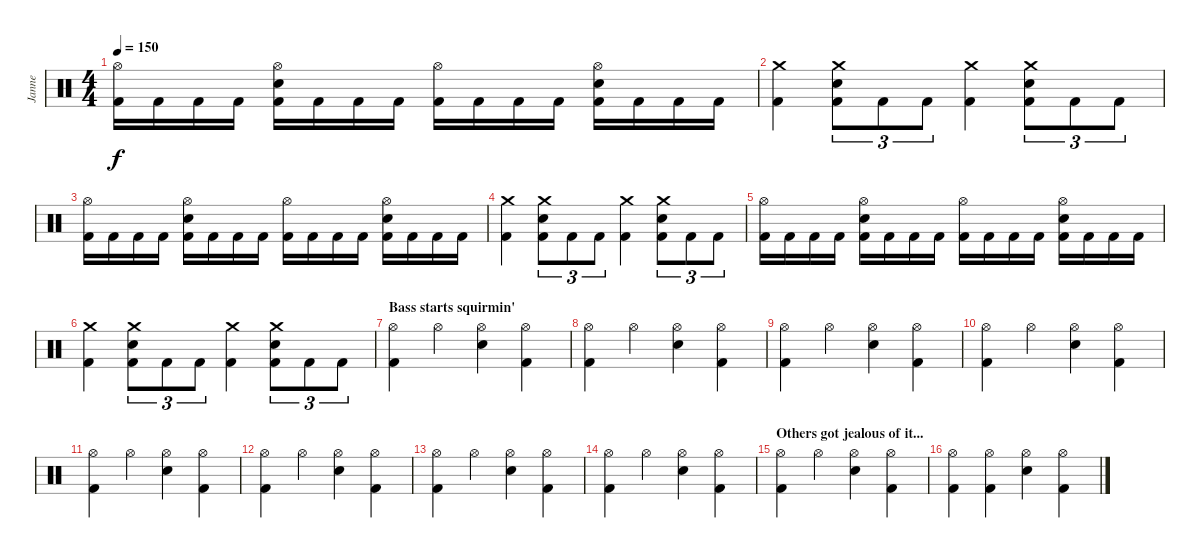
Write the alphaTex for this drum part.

\track ("Janne" "Janne") {instrument percussion}
\staff {score}
\articulation defaults
\ts (4 4)
\tempo 150
\clef neutral
\ks c
("Hi-Hat (open)" "Kick (hit) 2").16{dy f} "Kick (hit) 2".16 "Kick (hit) 2".16 "Kick (hit) 2".16 ("Hi-Hat (open)" "Electric Snare (hit)" "Kick (hit) 2").16 "Kick (hit) 2".16 "Kick (hit) 2".16 "Kick (hit) 2".16 ("Hi-Hat (open)" "Kick (hit) 2").16 "Kick (hit) 2".16 "Kick (hit) 2".16 "Kick (hit) 2".16 ("Hi-Hat (open)" "Electric Snare (hit)" "Kick (hit) 2").16 "Kick (hit) 2".16 "Kick (hit) 2".16 "Kick (hit) 2".16 |
("Crash medium (hit)" "Kick (hit) 2").4 ("Crash medium (hit)" "Electric Snare (hit)" "Kick (hit) 2").8{tu (3 2)} "Kick (hit) 2".8{tu (3 2)} "Kick (hit) 2".8{tu (3 2)} ("Crash medium (hit)" "Kick (hit) 2").4 ("Crash medium (hit)" "Electric Snare (hit)" "Kick (hit) 2").8{tu (3 2)} "Kick (hit) 2".8{tu (3 2)} "Kick (hit) 2".8{tu (3 2)} |
("Hi-Hat (open)" "Kick (hit) 2").16 "Kick (hit) 2".16 "Kick (hit) 2".16 "Kick (hit) 2".16 ("Hi-Hat (open)" "Electric Snare (hit)" "Kick (hit) 2").16 "Kick (hit) 2".16 "Kick (hit) 2".16 "Kick (hit) 2".16 ("Hi-Hat (open)" "Kick (hit) 2").16 "Kick (hit) 2".16 "Kick (hit) 2".16 "Kick (hit) 2".16 ("Hi-Hat (open)" "Electric Snare (hit)" "Kick (hit) 2").16 "Kick (hit) 2".16 "Kick (hit) 2".16 "Kick (hit) 2".16 |
("Crash medium (hit)" "Kick (hit) 2").4 ("Crash medium (hit)" "Electric Snare (hit)" "Kick (hit) 2").8{tu (3 2)} "Kick (hit) 2".8{tu (3 2)} "Kick (hit) 2".8{tu (3 2)} ("Crash medium (hit)" "Kick (hit) 2").4 ("Crash medium (hit)" "Electric Snare (hit)" "Kick (hit) 2").8{tu (3 2)} "Kick (hit) 2".8{tu (3 2)} "Kick (hit) 2".8{tu (3 2)} |
("Hi-Hat (open)" "Kick (hit) 2").16 "Kick (hit) 2".16 "Kick (hit) 2".16 "Kick (hit) 2".16 ("Hi-Hat (open)" "Electric Snare (hit)" "Kick (hit) 2").16 "Kick (hit) 2".16 "Kick (hit) 2".16 "Kick (hit) 2".16 ("Hi-Hat (open)" "Kick (hit) 2").16 "Kick (hit) 2".16 "Kick (hit) 2".16 "Kick (hit) 2".16 ("Hi-Hat (open)" "Electric Snare (hit)" "Kick (hit) 2").16 "Kick (hit) 2".16 "Kick (hit) 2".16 "Kick (hit) 2".16 |
("Crash medium (hit)" "Kick (hit) 2").4 ("Crash medium (hit)" "Electric Snare (hit)" "Kick (hit) 2").8{tu (3 2)} "Kick (hit) 2".8{tu (3 2)} "Kick (hit) 2".8{tu (3 2)} ("Crash medium (hit)" "Kick (hit) 2").4 ("Crash medium (hit)" "Electric Snare (hit)" "Kick (hit) 2").8{tu (3 2)} "Kick (hit) 2".8{tu (3 2)} "Kick (hit) 2".8{tu (3 2)} |
\section ("" "Bass starts squirmin'")
("Hi-Hat (open)" "Kick (hit) 2").4 "Hi-Hat (open)".4 ("Hi-Hat (open)" "Electric Snare (hit)").4 ("Hi-Hat (open)" "Kick (hit) 2").4 |
("Hi-Hat (open)" "Kick (hit) 2").4 "Hi-Hat (open)".4 ("Hi-Hat (open)" "Electric Snare (hit)").4 ("Hi-Hat (open)" "Kick (hit) 2").4 |
("Hi-Hat (open)" "Kick (hit) 2").4 "Hi-Hat (open)".4 ("Hi-Hat (open)" "Electric Snare (hit)").4 ("Hi-Hat (open)" "Kick (hit) 2").4 |
("Hi-Hat (open)" "Kick (hit) 2").4 "Hi-Hat (open)".4 ("Hi-Hat (open)" "Electric Snare (hit)").4 ("Hi-Hat (open)" "Kick (hit) 2").4 |
("Hi-Hat (open)" "Kick (hit) 2").4 "Hi-Hat (open)".4 ("Hi-Hat (open)" "Electric Snare (hit)").4 ("Hi-Hat (open)" "Kick (hit) 2").4 |
("Hi-Hat (open)" "Kick (hit) 2").4 "Hi-Hat (open)".4 ("Hi-Hat (open)" "Electric Snare (hit)").4 ("Hi-Hat (open)" "Kick (hit) 2").4 |
("Hi-Hat (open)" "Kick (hit) 2").4 "Hi-Hat (open)".4 ("Hi-Hat (open)" "Electric Snare (hit)").4 ("Hi-Hat (open)" "Kick (hit) 2").4 |
("Hi-Hat (open)" "Kick (hit) 2").4 "Hi-Hat (open)".4 ("Hi-Hat (open)" "Electric Snare (hit)").4 ("Hi-Hat (open)" "Kick (hit) 2").4 |
\section ("" "Others got jealous of it...")
("Hi-Hat (open)" "Kick (hit) 2").4 "Hi-Hat (open)".4 ("Hi-Hat (open)" "Electric Snare (hit)").4 ("Hi-Hat (open)" "Kick (hit) 2").4 |
("Hi-Hat (open)" "Kick (hit) 2").4 ("Hi-Hat (open)" "Kick (hit) 2").4 ("Hi-Hat (open)" "Electric Snare (hit)").4 ("Hi-Hat (open)" "Kick (hit) 2").4
